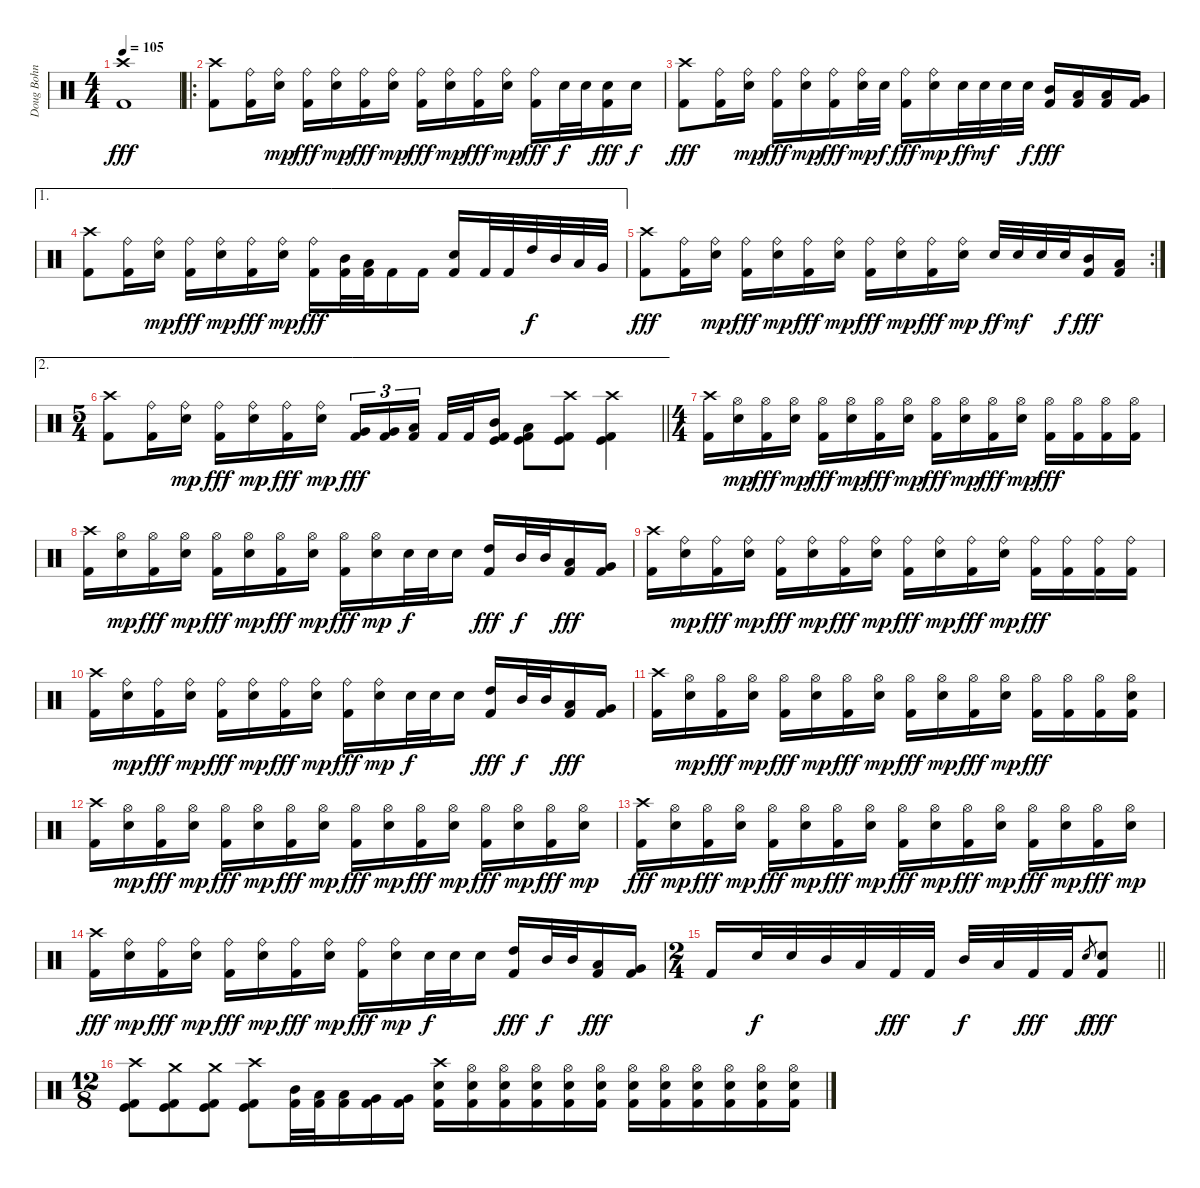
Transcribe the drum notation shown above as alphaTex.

\track ("Doug Bohn" "Doug Bohn") {instrument percussion}
\staff {score}
\articulation defaults
\ts (4 4)
\tempo 105
\clef neutral
\ks c
("Crash high (hit)" "Kick (hit) 2").1{dy fff} |
\ro
("Crash high (hit)" "Kick (hit) 2").8 ("Ride (bell)" "Kick (hit) 2").16 ("Ride (bell)" "Snare (hit) 2").16{dy mp} ("Ride (bell)" "Kick (hit) 2").16{dy fff} ("Ride (bell)" "Snare (hit) 2").16{dy mp} ("Ride (bell)" "Kick (hit) 2").16{dy fff} ("Ride (bell)" "Snare (hit) 2").16{dy mp} ("Ride (bell)" "Kick (hit) 2").16{dy fff} ("Ride (bell)" "Snare (hit) 2").16{dy mp} ("Ride (bell)" "Kick (hit) 2").16{dy fff} ("Ride (bell)" "Snare (hit) 2").16{dy mp} ("Ride (bell)" "Kick (hit) 2").16{dy fff} "Snare (hit) 2".32{dy f} "Snare (hit) 2".32 ("Snare (hit) 2" "Kick (hit) 2").16{dy fff} "Snare (hit) 2".16{dy f} |
("Crash high (hit)" "Kick (hit) 2").8{dy fff} ("Ride (bell)" "Kick (hit) 2").16 ("Ride (bell)" "Snare (hit) 2").16{dy mp} ("Ride (bell)" "Kick (hit) 2").16{dy fff} ("Ride (bell)" "Snare (hit) 2").16{dy mp} ("Ride (bell)" "Kick (hit) 2").16{dy fff} ("Ride (bell)" "Snare (hit) 2").32{dy mp} "Snare (hit) 2".32{dy f} ("Ride (bell)" "Kick (hit) 2").16{dy fff} ("Ride (bell)" "Snare (hit) 2").16{dy mp} "Snare (hit) 2".32{dy ff} "Snare (hit) 2".32{dy mf} "Snare (hit) 2".32 "Snare (hit) 2".32{dy f} ("Mid Tom (hit)" "Kick (hit) 2").16{dy fff} ("Low Tom (hit)" "Kick (hit) 2").16 ("Low Tom (hit)" "Kick (hit) 2").16 ("Very Low Tom (hit)" "Kick (hit) 2").16 |
\ae 1
("Crash high (hit)" "Kick (hit) 2").8 ("Ride (bell)" "Kick (hit) 2").16 ("Ride (bell)" "Snare (hit) 2").16{dy mp} ("Ride (bell)" "Kick (hit) 2").16{dy fff} ("Ride (bell)" "Snare (hit) 2").16{dy mp} ("Ride (bell)" "Kick (hit) 2").16{dy fff} ("Ride (bell)" "Snare (hit) 2").16{dy mp} ("Ride (bell)" "Kick (hit) 2").16{dy fff} ("Mid Tom (hit)" "Kick (hit) 2").32 ("Low Tom (hit)" "Kick (hit) 2").32 "Kick (hit) 2".16 "Kick (hit) 2".16 ("Snare (hit) 2" "Kick (hit) 2").16 "Kick (hit) 2".32 "Kick (hit) 2".32 "High Tom (hit)".32{dy f} "Mid Tom (hit)".32 "Low Tom (hit)".32 "Very Low Tom (hit)".32 |
\rc 2
("Crash high (hit)" "Kick (hit) 2").8{dy fff} ("Ride (bell)" "Kick (hit) 2").16 ("Ride (bell)" "Snare (hit) 2").16{dy mp} ("Ride (bell)" "Kick (hit) 2").16{dy fff} ("Ride (bell)" "Snare (hit) 2").16{dy mp} ("Ride (bell)" "Kick (hit) 2").16{dy fff} ("Ride (bell)" "Snare (hit) 2").16{dy mp} ("Ride (bell)" "Kick (hit) 2").16{dy fff} ("Ride (bell)" "Snare (hit) 2").16{dy mp} ("Ride (bell)" "Kick (hit) 2").16{dy fff} ("Ride (bell)" "Snare (hit) 2").16{dy mp} "Snare (hit) 2".32{dy ff} "Snare (hit) 2".32{dy mf} "Snare (hit) 2".32 "Snare (hit) 2".32{dy f} ("Mid Tom (hit)" "Kick (hit) 2").16{dy fff} ("Low Tom (hit)" "Kick (hit) 2").16 |
\ae 2
\ts (5 4)
\barLineRight lightlight
("Crash high (hit)" "Kick (hit) 2").8 ("Ride (bell)" "Kick (hit) 2").16 ("Ride (bell)" "Snare (hit) 2").16{dy mp} ("Ride (bell)" "Kick (hit) 2").16{dy fff} ("Ride (bell)" "Snare (hit) 2").16{dy mp} ("Ride (bell)" "Kick (hit) 2").16{dy fff} ("Ride (bell)" "Snare (hit) 2").16{dy mp} ("Very Low Tom (hit)" "Kick (hit) 2").16{tu (3 2) dy fff} ("Very Low Tom (hit)" "Kick (hit) 2").16{tu (3 2)} ("Low Floor Tom (hit)" "Kick (hit) 2").16{tu (3 2)} "Kick (hit) 2".32 "Kick (hit) 2".32 ("Mid Tom (hit)" "Kick (hit)" "Kick (hit) 2").16 ("Low Tom (hit)" "Kick (hit)" "Kick (hit) 2").8 ("Crash high (hit)" "Kick (hit)" "Kick (hit) 2").8 ("Crash high (hit)" "Kick (hit)" "Kick (hit) 2").4 |
\ts (4 4)
("Crash high (hit)" "Kick (hit) 2").16 ("Hi-Hat (open)" "Snare (hit) 2").16{dy mp} ("Hi-Hat (open)" "Kick (hit) 2").16{dy fff} ("Hi-Hat (open)" "Snare (hit) 2").16{dy mp} ("Hi-Hat (open)" "Kick (hit) 2").16{dy fff} ("Hi-Hat (open)" "Snare (hit) 2").16{dy mp} ("Hi-Hat (open)" "Kick (hit) 2").16{dy fff} ("Hi-Hat (open)" "Snare (hit) 2").16{dy mp} ("Hi-Hat (open)" "Kick (hit) 2").16{dy fff} ("Hi-Hat (open)" "Snare (hit) 2").16{dy mp} ("Hi-Hat (open)" "Kick (hit) 2").16{dy fff} ("Hi-Hat (open)" "Snare (hit) 2").16{dy mp} ("Hi-Hat (open)" "Kick (hit) 2").16{dy fff} ("Hi-Hat (open)" "Kick (hit) 2").16 ("Hi-Hat (open)" "Kick (hit) 2").16 ("Hi-Hat (open)" "Kick (hit) 2").16 |
("Crash high (hit)" "Kick (hit) 2").16 ("Hi-Hat (open)" "Snare (hit) 2").16{dy mp} ("Hi-Hat (open)" "Kick (hit) 2").16{dy fff} ("Hi-Hat (open)" "Snare (hit) 2").16{dy mp} ("Hi-Hat (open)" "Kick (hit) 2").16{dy fff} ("Hi-Hat (open)" "Snare (hit) 2").16{dy mp} ("Hi-Hat (open)" "Kick (hit) 2").16{dy fff} ("Hi-Hat (open)" "Snare (hit) 2").16{dy mp} ("Hi-Hat (open)" "Kick (hit) 2").16{dy fff} ("Hi-Hat (open)" "Snare (hit) 2").16{dy mp} "Snare (hit) 2".32{dy f} "Snare (hit) 2".32 "Snare (hit) 2".16 ("High Tom (hit)" "Kick (hit) 2").16{dy fff} "Mid Tom (hit)".32{dy f} "Mid Tom (hit)".32 ("Low Tom (hit)" "Kick (hit) 2").16{dy fff} ("Very Low Tom (hit)" "Kick (hit) 2").16 |
("Crash high (hit)" "Kick (hit) 2").16 ("Ride (bell)" "Snare (hit) 2").16{dy mp} ("Ride (bell)" "Kick (hit) 2").16{dy fff} ("Ride (bell)" "Snare (hit) 2").16{dy mp} ("Ride (bell)" "Kick (hit) 2").16{dy fff} ("Ride (bell)" "Snare (hit) 2").16{dy mp} ("Ride (bell)" "Kick (hit) 2").16{dy fff} ("Ride (bell)" "Snare (hit) 2").16{dy mp} ("Ride (bell)" "Kick (hit) 2").16{dy fff} ("Ride (bell)" "Snare (hit) 2").16{dy mp} ("Ride (bell)" "Kick (hit) 2").16{dy fff} ("Ride (bell)" "Snare (hit) 2").16{dy mp} ("Ride (bell)" "Kick (hit) 2").16{dy fff} ("Ride (bell)" "Kick (hit) 2").16 ("Ride (bell)" "Kick (hit) 2").16 ("Ride (bell)" "Kick (hit) 2").16 |
("Crash high (hit)" "Kick (hit) 2").16 ("Ride (bell)" "Snare (hit) 2").16{dy mp} ("Ride (bell)" "Kick (hit) 2").16{dy fff} ("Ride (bell)" "Snare (hit) 2").16{dy mp} ("Ride (bell)" "Kick (hit) 2").16{dy fff} ("Ride (bell)" "Snare (hit) 2").16{dy mp} ("Ride (bell)" "Kick (hit) 2").16{dy fff} ("Ride (bell)" "Snare (hit) 2").16{dy mp} ("Ride (bell)" "Kick (hit) 2").16{dy fff} ("Ride (bell)" "Snare (hit) 2").16{dy mp} "Snare (hit) 2".32{dy f} "Snare (hit) 2".32 "Snare (hit) 2".16 ("High Tom (hit)" "Kick (hit) 2").16{dy fff} "Mid Tom (hit)".32{dy f} "Mid Tom (hit)".32 ("Low Tom (hit)" "Kick (hit) 2").16{dy fff} ("Very Low Tom (hit)" "Kick (hit) 2").16 |
("Crash high (hit)" "Kick (hit) 2").16 ("Hi-Hat (open)" "Snare (hit) 2").16{dy mp} ("Hi-Hat (open)" "Kick (hit) 2").16{dy fff} ("Hi-Hat (open)" "Snare (hit) 2").16{dy mp} ("Hi-Hat (open)" "Kick (hit) 2").16{dy fff} ("Hi-Hat (open)" "Snare (hit) 2").16{dy mp} ("Hi-Hat (open)" "Kick (hit) 2").16{dy fff} ("Hi-Hat (open)" "Snare (hit) 2").16{dy mp} ("Hi-Hat (open)" "Kick (hit) 2").16{dy fff} ("Hi-Hat (open)" "Snare (hit) 2").16{dy mp} ("Hi-Hat (open)" "Kick (hit) 2").16{dy fff} ("Hi-Hat (open)" "Snare (hit) 2").16{dy mp} ("Hi-Hat (open)" "Kick (hit) 2").16{dy fff} ("Hi-Hat (open)" "Kick (hit) 2").16 ("Hi-Hat (open)" "Kick (hit) 2").16 ("Hi-Hat (open)" "Snare (hit) 2" "Kick (hit) 2").16 |
("Crash high (hit)" "Kick (hit) 2").16 ("Hi-Hat (open)" "Snare (hit) 2").16{dy mp} ("Hi-Hat (open)" "Kick (hit) 2").16{dy fff} ("Hi-Hat (open)" "Snare (hit) 2").16{dy mp} ("Hi-Hat (open)" "Kick (hit) 2").16{dy fff} ("Hi-Hat (open)" "Snare (hit) 2").16{dy mp} ("Hi-Hat (open)" "Kick (hit) 2").16{dy fff} ("Hi-Hat (open)" "Snare (hit) 2").16{dy mp} ("Hi-Hat (open)" "Kick (hit) 2").16{dy fff} ("Hi-Hat (open)" "Snare (hit) 2").16{dy mp} ("Hi-Hat (open)" "Kick (hit) 2").16{dy fff} ("Hi-Hat (open)" "Snare (hit) 2").16{dy mp} ("Hi-Hat (open)" "Kick (hit) 2").16{dy fff} ("Hi-Hat (open)" "Snare (hit) 2").16{dy mp} ("Hi-Hat (open)" "Kick (hit) 2").16{dy fff} ("Hi-Hat (open)" "Snare (hit) 2").16{dy mp} |
("Crash high (hit)" "Kick (hit) 2").16{dy fff} ("Hi-Hat (open)" "Snare (hit) 2").16{dy mp} ("Hi-Hat (open)" "Kick (hit) 2").16{dy fff} ("Hi-Hat (open)" "Snare (hit) 2").16{dy mp} ("Hi-Hat (open)" "Kick (hit) 2").16{dy fff} ("Hi-Hat (open)" "Snare (hit) 2").16{dy mp} ("Hi-Hat (open)" "Kick (hit) 2").16{dy fff} ("Hi-Hat (open)" "Snare (hit) 2").16{dy mp} ("Hi-Hat (open)" "Kick (hit) 2").16{dy fff} ("Hi-Hat (open)" "Snare (hit) 2").16{dy mp} ("Hi-Hat (open)" "Kick (hit) 2").16{dy fff} ("Hi-Hat (open)" "Snare (hit) 2").16{dy mp} ("Hi-Hat (open)" "Kick (hit) 2").16{dy fff} ("Hi-Hat (open)" "Snare (hit) 2").16{dy mp} ("Hi-Hat (open)" "Kick (hit) 2").16{dy fff} ("Hi-Hat (open)" "Snare (hit) 2").16{dy mp} |
("Crash high (hit)" "Kick (hit) 2").16{dy fff} ("Ride (bell)" "Snare (hit) 2").16{dy mp} ("Ride (bell)" "Kick (hit) 2").16{dy fff} ("Ride (bell)" "Snare (hit) 2").16{dy mp} ("Ride (bell)" "Kick (hit) 2").16{dy fff} ("Ride (bell)" "Snare (hit) 2").16{dy mp} ("Ride (bell)" "Kick (hit) 2").16{dy fff} ("Ride (bell)" "Snare (hit) 2").16{dy mp} ("Ride (bell)" "Kick (hit) 2").16{dy fff} ("Ride (bell)" "Snare (hit) 2").16{dy mp} "Snare (hit) 2".32{dy f} "Snare (hit) 2".32 "Snare (hit) 2".16 ("High Tom (hit)" "Kick (hit) 2").16{dy fff} "Mid Tom (hit)".32{dy f} "Mid Tom (hit)".32 ("Low Tom (hit)" "Kick (hit) 2").16{dy fff} ("Very Low Tom (hit)" "Kick (hit) 2").16 |
\ts (2 4)
\barLineRight lightlight "Kick (hit) 2".16 "Snare (hit) 2".32{dy f} "Snare (hit) 2".32 "Mid Tom (hit)".32 "Low Tom (hit)".32 "Kick (hit) 2".32{dy fff} "Kick (hit) 2".32 "Mid Tom (hit)".32{dy f} "Low Tom (hit)".32 "Kick (hit) 2".32{dy fff} "Kick (hit) 2".32 "Snare (hit) 2".8{gr dy f}
("Snare (hit) 2" "Kick (hit) 2").8{dy fff} |
\ts (12 8)
("Crash high (hit)" "Kick (hit)" "Kick (hit) 2").8 ("Crash medium (hit)" "Kick (hit)" "Kick (hit) 2").8 ("Crash medium (hit)" "Kick (hit)" "Kick (hit) 2").8 ("Crash high (hit)" "Kick (hit)" "Kick (hit) 2").8 ("Mid Tom (hit)" "Kick (hit) 2").32 ("Low Tom (hit)" "Kick (hit) 2").32 ("Low Tom (hit)" "Kick (hit) 2").16 ("Very Low Tom (hit)" "Kick (hit) 2").16 ("Very Low Tom (hit)" "Kick (hit) 2").16 ("Crash high (hit)" "Snare (hit) 2" "Kick (hit) 2").16 ("Hi-Hat (open)" "Snare (hit) 2" "Kick (hit) 2").16 ("Hi-Hat (open)" "Snare (hit) 2" "Kick (hit) 2").16 ("Hi-Hat (open)" "Snare (hit) 2" "Kick (hit) 2").16 ("Hi-Hat (open)" "Snare (hit) 2" "Kick (hit) 2").16 ("Hi-Hat (open)" "Snare (hit) 2" "Kick (hit) 2").16 ("Hi-Hat (open)" "Snare (hit) 2" "Kick (hit) 2").16 ("Hi-Hat (open)" "Snare (hit) 2" "Kick (hit) 2").16 ("Hi-Hat (open)" "Snare (hit) 2" "Kick (hit) 2").16 ("Hi-Hat (open)" "Snare (hit) 2" "Kick (hit) 2").16 ("Hi-Hat (open)" "Snare (hit) 2" "Kick (hit) 2").16 ("Hi-Hat (open)" "Snare (hit) 2" "Kick (hit) 2").16
